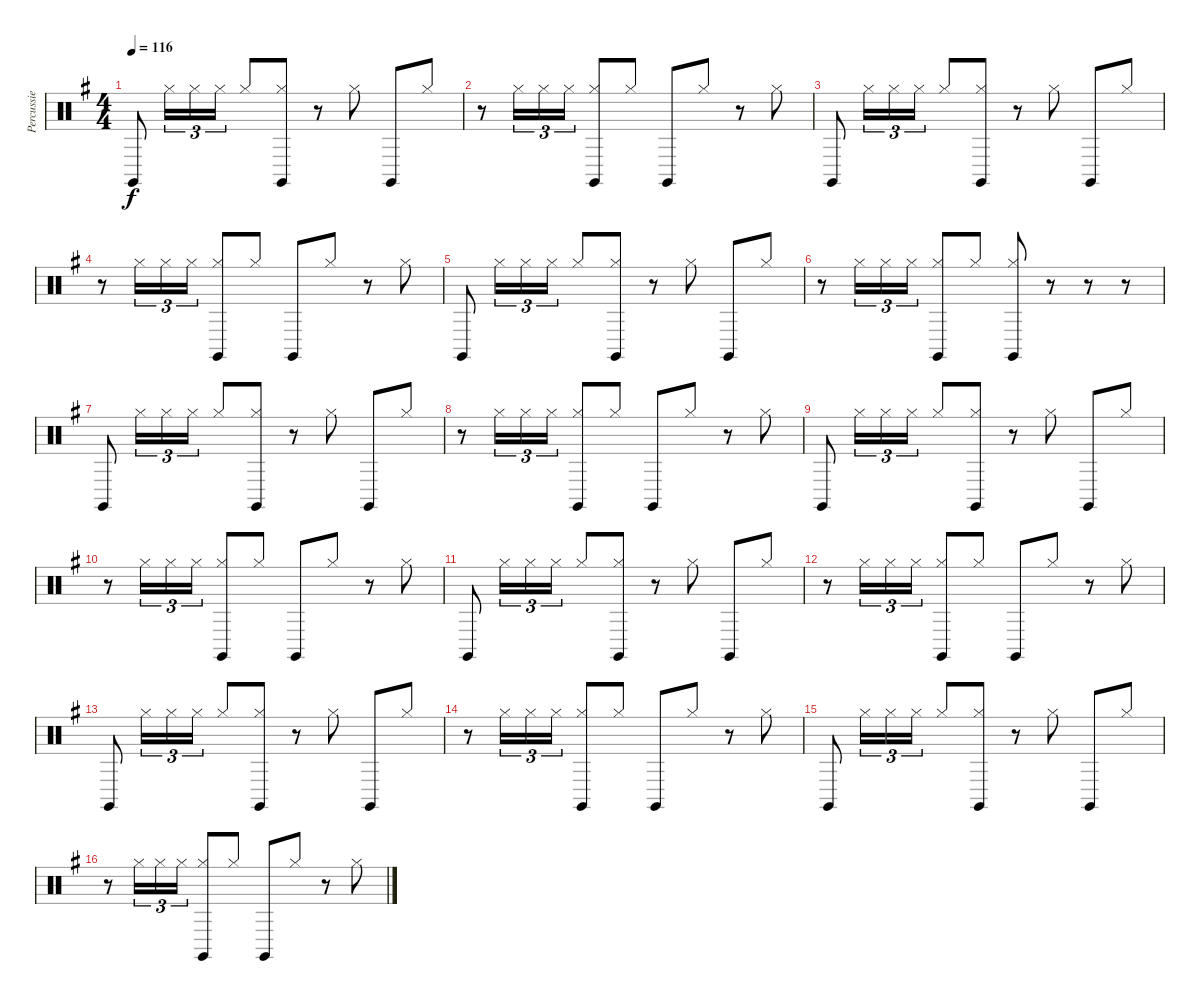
\track ("Percussie" "Percussie") {instrument percussion}
\staff {score}
\articulation defaults
\ts (4 4)
\tempo 116
\clef neutral
\ks g "Claves (hit)".8{dy f} "Hi-Hat (closed)".16{tu (3 2)} "Hi-Hat (closed)".16{tu (3 2)} "Hi-Hat (closed)".16{tu (3 2)} "Hi-Hat (closed)".8
("Hi-Hat (closed)" "Claves (hit)").8 r.8 "Hi-Hat (closed)".8 "Claves (hit)".8 "Hi-Hat (closed)".8 |
r.8 "Hi-Hat (closed)".16{tu (3 2)} "Hi-Hat (closed)".16{tu (3 2)} "Hi-Hat (closed)".16{tu (3 2)} ("Hi-Hat (closed)" "Claves (hit)").8 "Hi-Hat (closed)".8 "Claves (hit)".8 "Hi-Hat (closed)".8 r.8 "Hi-Hat (closed)".8 |
"Claves (hit)".8 "Hi-Hat (closed)".16{tu (3 2)} "Hi-Hat (closed)".16{tu (3 2)} "Hi-Hat (closed)".16{tu (3 2)} "Hi-Hat (closed)".8 ("Hi-Hat (closed)" "Claves (hit)").8 r.8 "Hi-Hat (closed)".8 "Claves (hit)".8 "Hi-Hat (closed)".8 |
r.8 "Hi-Hat (closed)".16{tu (3 2)} "Hi-Hat (closed)".16{tu (3 2)} "Hi-Hat (closed)".16{tu (3 2)} ("Hi-Hat (closed)" "Claves (hit)").8 "Hi-Hat (closed)".8 "Claves (hit)".8 "Hi-Hat (closed)".8 r.8 "Hi-Hat (closed)".8 |
"Claves (hit)".8 "Hi-Hat (closed)".16{tu (3 2)} "Hi-Hat (closed)".16{tu (3 2)} "Hi-Hat (closed)".16{tu (3 2)} "Hi-Hat (closed)".8 ("Hi-Hat (closed)" "Claves (hit)").8 r.8 "Hi-Hat (closed)".8 "Claves (hit)".8 "Hi-Hat (closed)".8 |
r.8 "Hi-Hat (closed)".16{tu (3 2)} "Hi-Hat (closed)".16{tu (3 2)} "Hi-Hat (closed)".16{tu (3 2)} ("Hi-Hat (closed)" "Claves (hit)").8 "Hi-Hat (closed)".8 ("Hi-Hat (closed)" "Claves (hit)").8 r.8 r.8 r.8 |
"Claves (hit)".8 "Hi-Hat (closed)".16{tu (3 2)} "Hi-Hat (closed)".16{tu (3 2)} "Hi-Hat (closed)".16{tu (3 2)} "Hi-Hat (closed)".8 ("Hi-Hat (closed)" "Claves (hit)").8 r.8 "Hi-Hat (closed)".8 "Claves (hit)".8 "Hi-Hat (closed)".8 |
r.8 "Hi-Hat (closed)".16{tu (3 2)} "Hi-Hat (closed)".16{tu (3 2)} "Hi-Hat (closed)".16{tu (3 2)} ("Hi-Hat (closed)" "Claves (hit)").8 "Hi-Hat (closed)".8 "Claves (hit)".8 "Hi-Hat (closed)".8 r.8 "Hi-Hat (closed)".8 |
"Claves (hit)".8 "Hi-Hat (closed)".16{tu (3 2)} "Hi-Hat (closed)".16{tu (3 2)} "Hi-Hat (closed)".16{tu (3 2)} "Hi-Hat (closed)".8 ("Hi-Hat (closed)" "Claves (hit)").8 r.8 "Hi-Hat (closed)".8 "Claves (hit)".8 "Hi-Hat (closed)".8 |
r.8 "Hi-Hat (closed)".16{tu (3 2)} "Hi-Hat (closed)".16{tu (3 2)} "Hi-Hat (closed)".16{tu (3 2)} ("Hi-Hat (closed)" "Claves (hit)").8 "Hi-Hat (closed)".8 "Claves (hit)".8 "Hi-Hat (closed)".8 r.8 "Hi-Hat (closed)".8 |
"Claves (hit)".8 "Hi-Hat (closed)".16{tu (3 2)} "Hi-Hat (closed)".16{tu (3 2)} "Hi-Hat (closed)".16{tu (3 2)} "Hi-Hat (closed)".8 ("Hi-Hat (closed)" "Claves (hit)").8 r.8 "Hi-Hat (closed)".8 "Claves (hit)".8 "Hi-Hat (closed)".8 |
r.8 "Hi-Hat (closed)".16{tu (3 2)} "Hi-Hat (closed)".16{tu (3 2)} "Hi-Hat (closed)".16{tu (3 2)} ("Hi-Hat (closed)" "Claves (hit)").8 "Hi-Hat (closed)".8 "Claves (hit)".8 "Hi-Hat (closed)".8 r.8 "Hi-Hat (closed)".8 |
"Claves (hit)".8 "Hi-Hat (closed)".16{tu (3 2)} "Hi-Hat (closed)".16{tu (3 2)} "Hi-Hat (closed)".16{tu (3 2)} "Hi-Hat (closed)".8 ("Hi-Hat (closed)" "Claves (hit)").8 r.8 "Hi-Hat (closed)".8 "Claves (hit)".8 "Hi-Hat (closed)".8 |
r.8 "Hi-Hat (closed)".16{tu (3 2)} "Hi-Hat (closed)".16{tu (3 2)} "Hi-Hat (closed)".16{tu (3 2)} ("Hi-Hat (closed)" "Claves (hit)").8 "Hi-Hat (closed)".8 "Claves (hit)".8 "Hi-Hat (closed)".8 r.8 "Hi-Hat (closed)".8 |
"Claves (hit)".8 "Hi-Hat (closed)".16{tu (3 2)} "Hi-Hat (closed)".16{tu (3 2)} "Hi-Hat (closed)".16{tu (3 2)} "Hi-Hat (closed)".8 ("Hi-Hat (closed)" "Claves (hit)").8 r.8 "Hi-Hat (closed)".8 "Claves (hit)".8 "Hi-Hat (closed)".8 |
r.8 "Hi-Hat (closed)".16{tu (3 2)} "Hi-Hat (closed)".16{tu (3 2)} "Hi-Hat (closed)".16{tu (3 2)} ("Hi-Hat (closed)" "Claves (hit)").8 "Hi-Hat (closed)".8 "Claves (hit)".8 "Hi-Hat (closed)".8 r.8 "Hi-Hat (closed)".8
